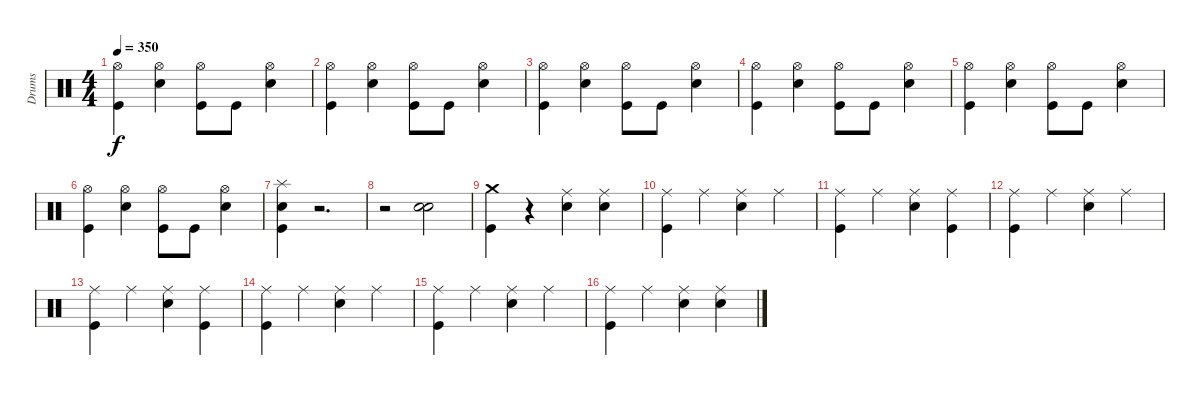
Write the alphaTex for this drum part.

\track ("Drums" "Drums") {instrument percussion}
\staff {score}
\articulation defaults
\ts (4 4)
\tempo 350
\clef neutral
\ks c
("Hi-Hat (open)" "Kick (hit)").4{dy f} ("Hi-Hat (open)" "Snare (hit) 2").4 ("Hi-Hat (open)" "Kick (hit)").8 "Kick (hit)".8 ("Hi-Hat (open)" "Snare (hit) 2").4 |
("Hi-Hat (open)" "Kick (hit)").4 ("Hi-Hat (open)" "Snare (hit) 2").4 ("Hi-Hat (open)" "Kick (hit)").8 "Kick (hit)".8 ("Hi-Hat (open)" "Snare (hit) 2").4 |
("Hi-Hat (open)" "Kick (hit)").4 ("Hi-Hat (open)" "Snare (hit) 2").4 ("Hi-Hat (open)" "Kick (hit)").8 "Kick (hit)".8 ("Hi-Hat (open)" "Snare (hit) 2").4 |
("Hi-Hat (open)" "Kick (hit)").4 ("Hi-Hat (open)" "Snare (hit) 2").4 ("Hi-Hat (open)" "Kick (hit)").8 "Kick (hit)".8 ("Hi-Hat (open)" "Snare (hit) 2").4 |
("Hi-Hat (open)" "Kick (hit)").4 ("Hi-Hat (open)" "Snare (hit) 2").4 ("Hi-Hat (open)" "Kick (hit)").8 "Kick (hit)".8 ("Hi-Hat (open)" "Snare (hit) 2").4 |
("Hi-Hat (open)" "Kick (hit)").4 ("Hi-Hat (open)" "Snare (hit) 2").4 ("Hi-Hat (open)" "Kick (hit)").8 "Kick (hit)".8 ("Hi-Hat (open)" "Snare (hit) 2").4 |
("Splash (hit)" "Snare (hit) 2" "Kick (hit)").4 r.2{d} |
r.2 ("Snare (hit) 2" "Snare (hit) 2").2 |
("Crash medium (hit)" "Kick (hit)").4 r.4 ("Ride (middle)" "Snare (hit) 2").4 ("Ride (middle)" "Snare (hit) 2").4 |
("Ride (middle)" "Kick (hit)").4 "Ride (middle)".4 ("Ride (middle)" "Snare (hit) 2").4 "Ride (middle)".4 |
("Ride (middle)" "Kick (hit)").4 "Ride (middle)".4 ("Ride (middle)" "Snare (hit) 2").4 ("Ride (middle)" "Kick (hit)").4 |
("Ride (middle)" "Kick (hit)").4 "Ride (middle)".4 ("Ride (middle)" "Snare (hit) 2").4 "Ride (middle)".4 |
("Ride (middle)" "Kick (hit)").4 "Ride (middle)".4 ("Ride (middle)" "Snare (hit) 2").4 ("Ride (middle)" "Kick (hit)").4 |
("Ride (middle)" "Kick (hit)").4 "Ride (middle)".4 ("Ride (middle)" "Snare (hit) 2").4 "Ride (middle)".4 |
("Ride (middle)" "Kick (hit)").4 "Ride (middle)".4 ("Ride (middle)" "Snare (hit) 2").4 "Ride (middle)".4 |
("Ride (middle)" "Kick (hit)").4 "Ride (middle)".4 ("Ride (middle)" "Snare (hit) 2").4 ("Ride (middle)" "Snare (hit) 2").4
